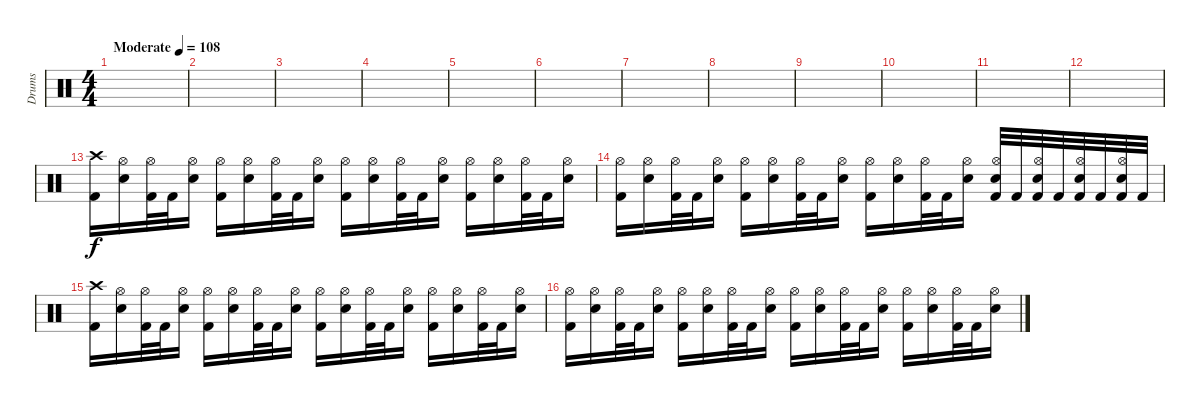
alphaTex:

\track ("Drums" "Drums") {instrument percussion}
\staff
\articulation defaults
\ts (4 4)
\tempo (108 "Moderate")
\clef neutral
\ks c
|
|
|
|
|
|
|
|
|
|
|
|
("Crash high (hit)" "Kick (hit) 2").16 ("Hi-Hat (open)" "Electric Snare (hit)").16 ("Hi-Hat (open)" "Kick (hit) 2").32 "Kick (hit) 2".32 ("Hi-Hat (open)" "Electric Snare (hit)").16 ("Hi-Hat (open)" "Kick (hit) 2").16 ("Hi-Hat (open)" "Electric Snare (hit)").16 ("Hi-Hat (open)" "Kick (hit) 2").32 "Kick (hit) 2".32 ("Hi-Hat (open)" "Electric Snare (hit)").16 ("Hi-Hat (open)" "Kick (hit) 2").16 ("Hi-Hat (open)" "Electric Snare (hit)").16 ("Hi-Hat (open)" "Kick (hit) 2").32 "Kick (hit) 2".32 ("Hi-Hat (open)" "Electric Snare (hit)").16 ("Hi-Hat (open)" "Kick (hit) 2").16 ("Hi-Hat (open)" "Electric Snare (hit)").16 ("Hi-Hat (open)" "Kick (hit) 2").32 "Kick (hit) 2".32 ("Hi-Hat (open)" "Electric Snare (hit)").16 |
("Hi-Hat (open)" "Kick (hit) 2").16 ("Hi-Hat (open)" "Electric Snare (hit)").16 ("Hi-Hat (open)" "Kick (hit) 2").32 "Kick (hit) 2".32 ("Hi-Hat (open)" "Electric Snare (hit)").16 ("Hi-Hat (open)" "Kick (hit) 2").16 ("Hi-Hat (open)" "Electric Snare (hit)").16 ("Hi-Hat (open)" "Kick (hit) 2").32 "Kick (hit) 2".32 ("Hi-Hat (open)" "Electric Snare (hit)").16 ("Hi-Hat (open)" "Kick (hit) 2").16 ("Hi-Hat (open)" "Electric Snare (hit)").16 ("Hi-Hat (open)" "Kick (hit) 2").32 "Kick (hit) 2".32 ("Hi-Hat (open)" "Electric Snare (hit)").16 ("Hi-Hat (open)" "Electric Snare (hit)" "Kick (hit) 2").32 "Kick (hit) 2".32 ("Hi-Hat (open)" "Electric Snare (hit)" "Kick (hit) 2").32 "Kick (hit) 2".32 ("Hi-Hat (open)" "Electric Snare (hit)" "Kick (hit) 2").32 "Kick (hit) 2".32 ("Hi-Hat (open)" "Electric Snare (hit)" "Kick (hit) 2").32 "Kick (hit) 2".32 |
("Crash high (hit)" "Kick (hit) 2").16 ("Hi-Hat (open)" "Electric Snare (hit)").16 ("Hi-Hat (open)" "Kick (hit) 2").32 "Kick (hit) 2".32 ("Hi-Hat (open)" "Electric Snare (hit)").16 ("Hi-Hat (open)" "Kick (hit) 2").16 ("Hi-Hat (open)" "Electric Snare (hit)").16 ("Hi-Hat (open)" "Kick (hit) 2").32 "Kick (hit) 2".32 ("Hi-Hat (open)" "Electric Snare (hit)").16 ("Hi-Hat (open)" "Kick (hit) 2").16 ("Hi-Hat (open)" "Electric Snare (hit)").16 ("Hi-Hat (open)" "Kick (hit) 2").32 "Kick (hit) 2".32 ("Hi-Hat (open)" "Electric Snare (hit)").16 ("Hi-Hat (open)" "Kick (hit) 2").16 ("Hi-Hat (open)" "Electric Snare (hit)").16 ("Hi-Hat (open)" "Kick (hit) 2").32 "Kick (hit) 2".32 ("Hi-Hat (open)" "Electric Snare (hit)").16 |
("Hi-Hat (open)" "Kick (hit) 2").16 ("Hi-Hat (open)" "Electric Snare (hit)").16 ("Hi-Hat (open)" "Kick (hit) 2").32 "Kick (hit) 2".32 ("Hi-Hat (open)" "Electric Snare (hit)").16 ("Hi-Hat (open)" "Kick (hit) 2").16 ("Hi-Hat (open)" "Electric Snare (hit)").16 ("Hi-Hat (open)" "Kick (hit) 2").32 "Kick (hit) 2".32 ("Hi-Hat (open)" "Electric Snare (hit)").16 ("Hi-Hat (open)" "Kick (hit) 2").16 ("Hi-Hat (open)" "Electric Snare (hit)").16 ("Hi-Hat (open)" "Kick (hit) 2").32 "Kick (hit) 2".32 ("Hi-Hat (open)" "Electric Snare (hit)").16 ("Hi-Hat (open)" "Kick (hit) 2").16 ("Hi-Hat (open)" "Electric Snare (hit)").16 ("Hi-Hat (open)" "Kick (hit) 2").32 "Kick (hit) 2".32 ("Hi-Hat (open)" "Electric Snare (hit)").16
